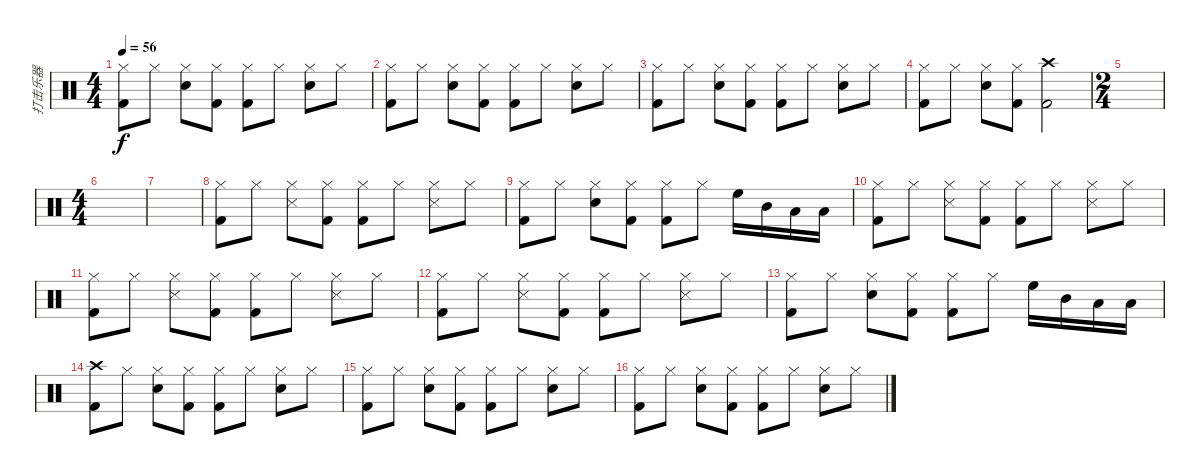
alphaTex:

\track ("打击乐器" "打击乐器") {instrument percussion}
\staff {score}
\articulation defaults
\ts (4 4)
\tempo 56
\clef neutral
\ks c
("Hi-Hat (closed)" "Kick (hit) 2").8{dy f} "Hi-Hat (closed)".8 ("Hi-Hat (closed)" "Snare (hit) 2").8 ("Hi-Hat (closed)" "Kick (hit) 2").8 ("Hi-Hat (closed)" "Kick (hit) 2").8 "Hi-Hat (closed)".8 ("Hi-Hat (closed)" "Snare (hit) 2").8 "Hi-Hat (closed)".8 |
("Hi-Hat (closed)" "Kick (hit) 2").8 "Hi-Hat (closed)".8 ("Hi-Hat (closed)" "Snare (hit) 2").8 ("Hi-Hat (closed)" "Kick (hit) 2").8 ("Hi-Hat (closed)" "Kick (hit) 2").8 "Hi-Hat (closed)".8 ("Hi-Hat (closed)" "Snare (hit) 2").8 "Hi-Hat (closed)".8 |
("Hi-Hat (closed)" "Kick (hit) 2").8 "Hi-Hat (closed)".8 ("Hi-Hat (closed)" "Snare (hit) 2").8 ("Hi-Hat (closed)" "Kick (hit) 2").8 ("Hi-Hat (closed)" "Kick (hit) 2").8 "Hi-Hat (closed)".8 ("Hi-Hat (closed)" "Snare (hit) 2").8 "Hi-Hat (closed)".8 |
("Hi-Hat (closed)" "Kick (hit) 2").8 "Hi-Hat (closed)".8 ("Hi-Hat (closed)" "Snare (hit) 2").8 ("Hi-Hat (closed)" "Kick (hit) 2").8 ("Crash high (hit)" "Kick (hit) 2").2 |
\ts (2 4)
|
\ts (4 4)
|
|
("Hi-Hat (closed)" "Kick (hit) 2").8 "Hi-Hat (closed)".8 ("Hi-Hat (closed)" "Snare (side stick) 3").8 ("Hi-Hat (closed)" "Kick (hit) 2").8 ("Hi-Hat (closed)" "Kick (hit) 2").8 "Hi-Hat (closed)".8 ("Hi-Hat (closed)" "Snare (side stick) 3").8 "Hi-Hat (closed)".8 |
("Hi-Hat (closed)" "Kick (hit) 2").8 "Hi-Hat (closed)".8 ("Hi-Hat (closed)" "Snare (hit) 2").8 ("Hi-Hat (closed)" "Kick (hit) 2").8 ("Hi-Hat (closed)" "Kick (hit) 2").8 "Hi-Hat (closed)".8 "High Floor Tom (hit)".16 "Mid Tom (hit)".16 "Low Tom (hit)".16 "Low Floor Tom (hit)".16 |
("Hi-Hat (closed)" "Kick (hit) 2").8 "Hi-Hat (closed)".8 ("Hi-Hat (closed)" "Snare (side stick) 3").8 ("Hi-Hat (closed)" "Kick (hit) 2").8 ("Hi-Hat (closed)" "Kick (hit) 2").8 "Hi-Hat (closed)".8 ("Hi-Hat (closed)" "Snare (side stick) 3").8 "Hi-Hat (closed)".8 |
("Hi-Hat (closed)" "Kick (hit) 2").8 "Hi-Hat (closed)".8 ("Hi-Hat (closed)" "Snare (side stick) 3").8 ("Hi-Hat (closed)" "Kick (hit) 2").8 ("Hi-Hat (closed)" "Kick (hit) 2").8 "Hi-Hat (closed)".8 ("Hi-Hat (closed)" "Snare (side stick) 3").8 "Hi-Hat (closed)".8 |
("Hi-Hat (closed)" "Kick (hit) 2").8 "Hi-Hat (closed)".8 ("Hi-Hat (closed)" "Snare (side stick) 3").8 ("Hi-Hat (closed)" "Kick (hit) 2").8 ("Hi-Hat (closed)" "Kick (hit) 2").8 "Hi-Hat (closed)".8 ("Hi-Hat (closed)" "Snare (side stick) 3").8 "Hi-Hat (closed)".8 |
("Hi-Hat (closed)" "Kick (hit) 2").8 "Hi-Hat (closed)".8 ("Hi-Hat (closed)" "Hand Clap (hit)").8 ("Hi-Hat (closed)" "Kick (hit) 2").8 ("Hi-Hat (closed)" "Kick (hit) 2").8 "Hi-Hat (closed)".8 "High Floor Tom (hit)".16 "Mid Tom (hit)".16 "Low Tom (hit)".16 "Low Floor Tom (hit)".16 |
("Crash high (hit)" "Kick (hit) 2").8 "Hi-Hat (closed)".8 ("Hi-Hat (closed)" "Snare (hit) 2").8 ("Hi-Hat (closed)" "Kick (hit) 2").8 ("Hi-Hat (closed)" "Kick (hit) 2").8 "Hi-Hat (closed)".8 ("Hi-Hat (closed)" "Snare (hit) 2").8 "Hi-Hat (closed)".8 |
("Hi-Hat (closed)" "Kick (hit) 2").8 "Hi-Hat (closed)".8 ("Hi-Hat (closed)" "Snare (hit) 2").8 ("Hi-Hat (closed)" "Kick (hit) 2").8 ("Hi-Hat (closed)" "Kick (hit) 2").8 "Hi-Hat (closed)".8 ("Hi-Hat (closed)" "Snare (hit) 2").8 "Hi-Hat (closed)".8 |
("Hi-Hat (closed)" "Kick (hit) 2").8 "Hi-Hat (closed)".8 ("Hi-Hat (closed)" "Snare (hit) 2").8 ("Hi-Hat (closed)" "Kick (hit) 2").8 ("Hi-Hat (closed)" "Kick (hit) 2").8 "Hi-Hat (closed)".8 ("Hi-Hat (closed)" "Snare (hit) 2").8 "Hi-Hat (closed)".8
